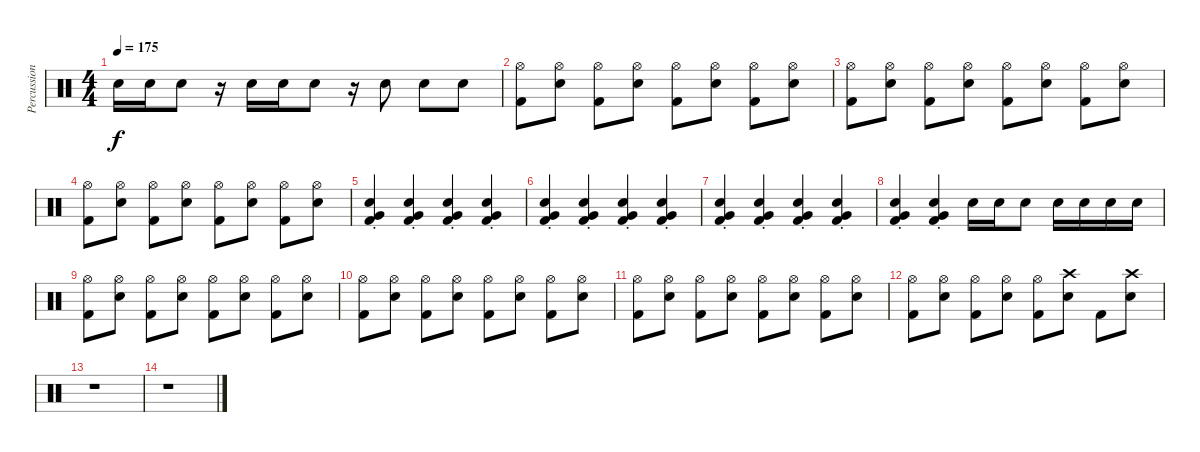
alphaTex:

\track ("Percussion" "Percussion") {instrument percussion}
\staff {score}
\articulation defaults
\ts (4 4)
\tempo 175
\clef neutral
\ks c "Electric Snare (hit)".16{dy f} "Electric Snare (hit)".16 "Electric Snare (hit)".8
r.16 "Electric Snare (hit)".16 "Electric Snare (hit)".16 "Electric Snare (hit)".8 r.16 "Electric Snare (hit)".8 "Electric Snare (hit)".8 "Electric Snare (hit)".8 |
("Hi-Hat (open)" "Kick (hit) 2").8 ("Hi-Hat (open)" "Electric Snare (hit)").8 ("Hi-Hat (open)" "Kick (hit) 2").8 ("Hi-Hat (open)" "Electric Snare (hit)").8 ("Hi-Hat (open)" "Kick (hit) 2").8 ("Hi-Hat (open)" "Electric Snare (hit)").8 ("Hi-Hat (open)" "Kick (hit) 2").8 ("Hi-Hat (open)" "Electric Snare (hit)").8 |
("Hi-Hat (open)" "Kick (hit) 2").8 ("Hi-Hat (open)" "Electric Snare (hit)").8 ("Hi-Hat (open)" "Kick (hit) 2").8 ("Hi-Hat (open)" "Electric Snare (hit)").8 ("Hi-Hat (open)" "Kick (hit) 2").8 ("Hi-Hat (open)" "Electric Snare (hit)").8 ("Hi-Hat (open)" "Kick (hit) 2").8 ("Hi-Hat (open)" "Electric Snare (hit)").8 |
("Hi-Hat (open)" "Kick (hit) 2").8 ("Hi-Hat (open)" "Electric Snare (hit)").8 ("Hi-Hat (open)" "Kick (hit) 2").8 ("Hi-Hat (open)" "Electric Snare (hit)").8 ("Hi-Hat (open)" "Kick (hit) 2").8 ("Hi-Hat (open)" "Electric Snare (hit)").8 ("Hi-Hat (open)" "Kick (hit) 2").8 ("Hi-Hat (open)" "Electric Snare (hit)").8 |
("Electric Snare (hit)" "Very Low Tom (hit)" "Kick (hit) 2"{st}).4 ("Electric Snare (hit)" "Very Low Tom (hit)" "Kick (hit) 2"{st}).4 ("Electric Snare (hit)" "Very Low Tom (hit)" "Kick (hit) 2"{st}).4 ("Electric Snare (hit)" "Very Low Tom (hit)" "Kick (hit) 2"{st}).4 |
("Electric Snare (hit)" "Very Low Tom (hit)" "Kick (hit) 2"{st}).4 ("Electric Snare (hit)" "Very Low Tom (hit)" "Kick (hit) 2"{st}).4 ("Electric Snare (hit)" "Very Low Tom (hit)" "Kick (hit) 2"{st}).4 ("Electric Snare (hit)" "Very Low Tom (hit)" "Kick (hit) 2"{st}).4 |
("Electric Snare (hit)" "Very Low Tom (hit)" "Kick (hit) 2"{st}).4 ("Electric Snare (hit)" "Very Low Tom (hit)" "Kick (hit) 2"{st}).4 ("Electric Snare (hit)" "Very Low Tom (hit)" "Kick (hit) 2"{st}).4 ("Electric Snare (hit)" "Very Low Tom (hit)" "Kick (hit) 2"{st}).4 |
("Electric Snare (hit)" "Very Low Tom (hit)" "Kick (hit) 2"{st}).4 ("Electric Snare (hit)" "Very Low Tom (hit)" "Kick (hit) 2"{st}).4 "Electric Snare (hit)".16 "Electric Snare (hit)".16 "Electric Snare (hit)".8 "Electric Snare (hit)".16 "Electric Snare (hit)".16 "Electric Snare (hit)".16 "Electric Snare (hit)".16 |
("Hi-Hat (open)" "Kick (hit) 2").8 ("Hi-Hat (open)" "Electric Snare (hit)").8 ("Hi-Hat (open)" "Kick (hit) 2").8 ("Hi-Hat (open)" "Electric Snare (hit)").8 ("Hi-Hat (open)" "Kick (hit) 2").8 ("Hi-Hat (open)" "Electric Snare (hit)").8 ("Hi-Hat (open)" "Kick (hit) 2").8 ("Hi-Hat (open)" "Electric Snare (hit)").8 |
("Hi-Hat (open)" "Kick (hit) 2").8 ("Hi-Hat (open)" "Electric Snare (hit)").8 ("Hi-Hat (open)" "Kick (hit) 2").8 ("Hi-Hat (open)" "Electric Snare (hit)").8 ("Hi-Hat (open)" "Kick (hit) 2").8 ("Hi-Hat (open)" "Electric Snare (hit)").8 ("Hi-Hat (open)" "Kick (hit) 2").8 ("Hi-Hat (open)" "Electric Snare (hit)").8 |
("Hi-Hat (open)" "Kick (hit) 2").8 ("Hi-Hat (open)" "Electric Snare (hit)").8 ("Hi-Hat (open)" "Kick (hit) 2").8 ("Hi-Hat (open)" "Electric Snare (hit)").8 ("Hi-Hat (open)" "Kick (hit) 2").8 ("Hi-Hat (open)" "Electric Snare (hit)").8 ("Hi-Hat (open)" "Kick (hit) 2").8 ("Hi-Hat (open)" "Electric Snare (hit)").8 |
("Hi-Hat (open)" "Kick (hit) 2").8 ("Hi-Hat (open)" "Electric Snare (hit)").8 ("Hi-Hat (open)" "Kick (hit) 2").8 ("Hi-Hat (open)" "Electric Snare (hit)").8 ("Hi-Hat (open)" "Kick (hit) 2").8 ("Crash high (hit)" "Electric Snare (hit)").8 "Kick (hit) 2".8 ("Crash high (hit)" "Electric Snare (hit)").8 |
r.1 |
r.1
